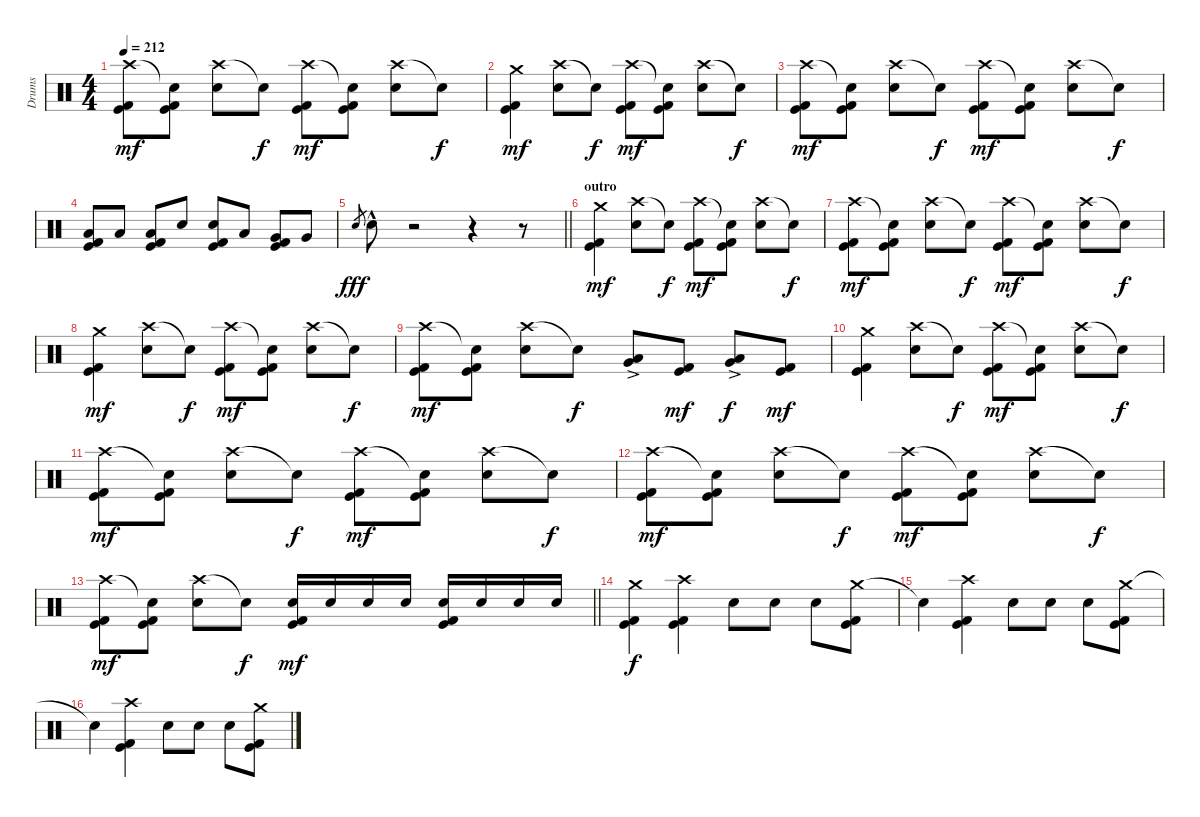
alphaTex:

\track ("Drums" "Drums") {instrument percussion}
\staff {score}
\articulation defaults
\ts (4 4)
\tempo 212
\clef neutral
\ks c
("Crash high (hit)" "Kick (hit)" "Kick (hit) 2").8{dy mf} ("Snare (hit)"{t} "Kick (hit)" "Kick (hit) 2").8 ("Crash high (hit)" "Snare (hit) 2").8 "Snare (hit)"{t}.8{dy f} ("Crash high (hit)" "Kick (hit)" "Kick (hit) 2").8{dy mf} ("Snare (hit)"{t} "Kick (hit)" "Kick (hit) 2").8 ("Crash high (hit)" "Snare (hit) 2").8 "Snare (hit)"{t}.8{dy f} |
("Crash medium (hit)" "Kick (hit)" "Kick (hit) 2").4{dy mf} ("Crash high (hit)" "Snare (hit) 2").8 "Snare (hit)"{t}.8{dy f} ("Crash high (hit)" "Kick (hit)" "Kick (hit) 2").8{dy mf} ("Snare (hit)"{t} "Kick (hit)" "Kick (hit) 2").8 ("Crash high (hit)" "Snare (hit) 2").8 "Snare (hit)"{t}.8{dy f} |
("Crash high (hit)" "Kick (hit)" "Kick (hit) 2").8{dy mf} ("Snare (hit)"{t} "Kick (hit)" "Kick (hit) 2").8 ("Crash high (hit)" "Snare (hit) 2").8 "Snare (hit)"{t}.8{dy f} ("Crash high (hit)" "Kick (hit)" "Kick (hit) 2").8{dy mf} ("Snare (hit)"{t} "Kick (hit)" "Kick (hit) 2").8 ("Crash high (hit)" "Snare (hit) 2").8 "Snare (hit)"{t}.8{dy f} |
("Low Tom (hit)" "Kick (hit)" "Kick (hit) 2").8 "Low Tom (hit)".8 ("Low Tom (hit)" "Kick (hit)" "Kick (hit) 2").8 "Snare (hit) 2".8 ("Snare (hit) 2" "Kick (hit)" "Kick (hit) 2").8 "Low Tom (hit)".8 ("Very Low Tom (hit)" "Kick (hit)" "Kick (hit) 2").8 "Very Low Tom (hit)".8 |
\barLineRight lightlight "Snare (hit) 2".8{gr dy fff} "Snare (hit) 2"{hac}.8
r.2 r.4 r.8 |
\section ("" "outro")
("Crash medium (hit)" "Kick (hit)" "Kick (hit) 2").4{dy mf} ("Crash high (hit)" "Snare (hit) 2").8 "Snare (hit)"{t}.8{dy f} ("Crash high (hit)" "Kick (hit)" "Kick (hit) 2").8{dy mf} ("Snare (hit)"{t} "Kick (hit)" "Kick (hit) 2").8 ("Crash high (hit)" "Snare (hit) 2").8 "Snare (hit)"{t}.8{dy f} |
("Crash high (hit)" "Kick (hit)" "Kick (hit) 2").8{dy mf} ("Snare (hit)"{t} "Kick (hit)" "Kick (hit) 2").8 ("Crash high (hit)" "Snare (hit) 2").8 "Snare (hit)"{t}.8{dy f} ("Crash high (hit)" "Kick (hit)" "Kick (hit) 2").8{dy mf} ("Snare (hit)"{t} "Kick (hit)" "Kick (hit) 2").8 ("Crash high (hit)" "Snare (hit) 2").8 "Snare (hit)"{t}.8{dy f} |
("Crash medium (hit)" "Kick (hit)" "Kick (hit) 2").4{dy mf} ("Crash high (hit)" "Snare (hit) 2").8 "Snare (hit)"{t}.8{dy f} ("Crash high (hit)" "Kick (hit)" "Kick (hit) 2").8{dy mf} ("Snare (hit)"{t} "Kick (hit)" "Kick (hit) 2").8 ("Crash high (hit)" "Snare (hit) 2").8 "Snare (hit)"{t}.8{dy f} |
("Crash high (hit)" "Kick (hit)" "Kick (hit) 2").8{dy mf} ("Snare (hit)"{t} "Kick (hit)" "Kick (hit) 2").8 ("Crash high (hit)" "Snare (hit) 2").8 "Snare (hit)"{t}.8{dy f} ("Low Floor Tom (hit)"{ac} "Very Low Tom (hit)"{ac}).8 ("Kick (hit)" "Kick (hit) 2").8{dy mf} ("Low Floor Tom (hit)"{ac} "Very Low Tom (hit)"{ac}).8{dy f} ("Kick (hit)" "Kick (hit) 2").8{dy mf} |
("Crash medium (hit)" "Kick (hit)" "Kick (hit) 2").4 ("Crash high (hit)" "Snare (hit) 2").8 "Snare (hit)"{t}.8{dy f} ("Crash high (hit)" "Kick (hit)" "Kick (hit) 2").8{dy mf} ("Snare (hit)"{t} "Kick (hit)" "Kick (hit) 2").8 ("Crash high (hit)" "Snare (hit) 2").8 "Snare (hit)"{t}.8{dy f} |
("Crash high (hit)" "Kick (hit)" "Kick (hit) 2").8{dy mf} ("Snare (hit)"{t} "Kick (hit)" "Kick (hit) 2").8 ("Crash high (hit)" "Snare (hit) 2").8 "Snare (hit)"{t}.8{dy f} ("Crash high (hit)" "Kick (hit)" "Kick (hit) 2").8{dy mf} ("Snare (hit)"{t} "Kick (hit)" "Kick (hit) 2").8 ("Crash high (hit)" "Snare (hit) 2").8 "Snare (hit)"{t}.8{dy f} |
("Crash high (hit)" "Kick (hit)" "Kick (hit) 2").8{dy mf} ("Snare (hit)"{t} "Kick (hit)" "Kick (hit) 2").8 ("Crash high (hit)" "Snare (hit) 2").8 "Snare (hit)"{t}.8{dy f} ("Crash high (hit)" "Kick (hit)" "Kick (hit) 2").8{dy mf} ("Snare (hit)"{t} "Kick (hit)" "Kick (hit) 2").8 ("Crash high (hit)" "Snare (hit) 2").8 "Snare (hit)"{t}.8{dy f} |
\barLineRight lightlight
("Crash high (hit)" "Kick (hit)" "Kick (hit) 2").8{dy mf} ("Snare (hit)"{t} "Kick (hit)" "Kick (hit) 2").8 ("Crash high (hit)" "Snare (hit) 2").8 "Snare (hit)"{t}.8{dy f} ("Snare (hit) 2" "Kick (hit)" "Kick (hit) 2").16{dy mf} "Snare (hit) 2".16 "Snare (hit) 2".16 "Snare (hit) 2".16 ("Snare (hit) 2" "Kick (hit)" "Kick (hit) 2").16 "Snare (hit) 2".16 "Snare (hit) 2".16 "Snare (hit) 2".16 |
("Crash medium (hit)" "Kick (hit)" "Kick (hit) 2").4{dy f} ("Crash high (hit)" "Kick (hit)" "Kick (hit) 2").4 "Snare (hit) 2".8 "Snare (hit) 2".8 "Snare (hit) 2".8 ("Crash medium (hit)" "Kick (hit)" "Kick (hit) 2").8 |
"Snare (hit)"{t}.4 ("Crash high (hit)" "Kick (hit)" "Kick (hit) 2").4 "Snare (hit) 2".8 "Snare (hit) 2".8 "Snare (hit) 2".8 ("Crash medium (hit)" "Kick (hit)" "Kick (hit) 2").8 |
"Snare (hit)"{t}.4 ("Crash high (hit)" "Kick (hit)" "Kick (hit) 2").4 "Snare (hit) 2".8 "Snare (hit) 2".8 "Snare (hit) 2".8 ("Crash medium (hit)" "Kick (hit)" "Kick (hit) 2").8
